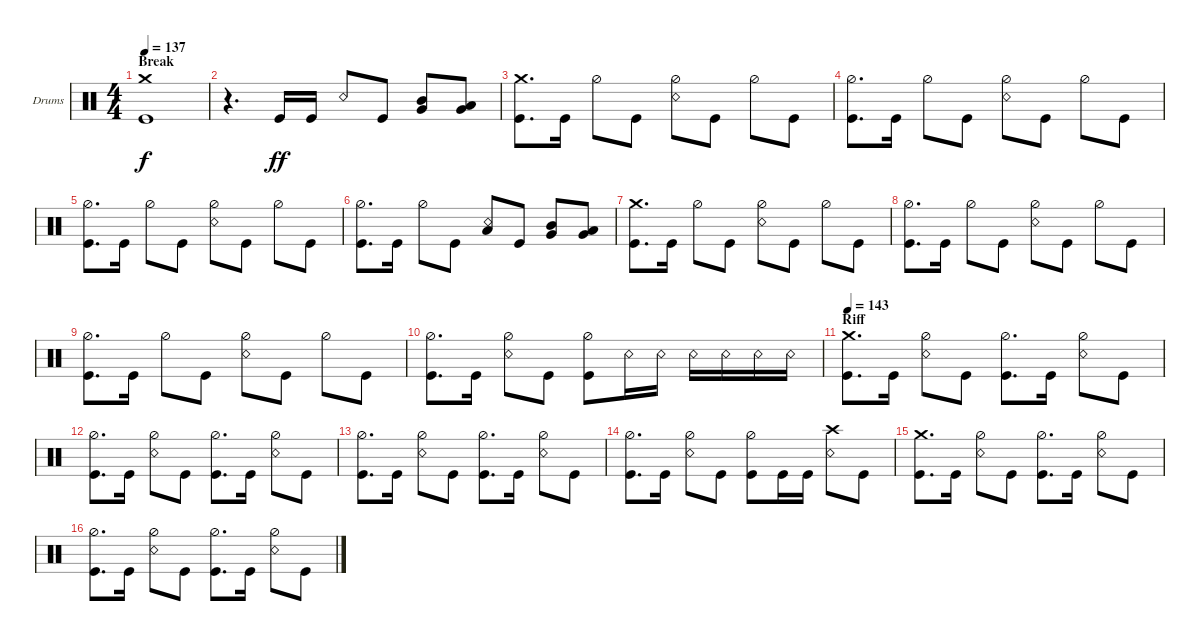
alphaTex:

\defaultSystemsLayout 4
\bracketExtendMode groupsimilarinstruments
\firstSystemTrackNameOrientation horizontal
\otherSystemsTrackNameOrientation horizontal
\track ("Nao - Drums" "Drums") {instrument percussion}
\staff {score}
\articulation defaults
\ts (4 4)
\section ("" "Break")
\tempo 137
\clef neutral
\ks c
("Crash medium (hit)" "Kick (hit)").1{dy f} |
r.4{d} "Kick (hit)".16{dy ff} "Kick (hit)".16 "Snare (rim shot)".8 "Kick (hit)".8 ("Mid Tom (hit)" "Very Low Tom (hit)").8 ("Low Tom (hit)" "Very Low Tom (hit)").8 |
("Crash medium (hit)" "Kick (hit)").8{d} "Kick (hit)".16 "Hi-Hat (half)".8 "Kick (hit)".8 ("Snare (rim shot)" "Hi-Hat (half)").8 "Kick (hit)".8 "Hi-Hat (half)".8 "Kick (hit)".8 |
("Kick (hit)" "Hi-Hat (half)").8{d} "Kick (hit)".16 "Hi-Hat (half)".8 "Kick (hit)".8 ("Snare (rim shot)" "Hi-Hat (half)").8 "Kick (hit)".8 "Hi-Hat (half)".8 "Kick (hit)".8 |
("Kick (hit)" "Hi-Hat (half)").8{d} "Kick (hit)".16 "Hi-Hat (half)".8 "Kick (hit)".8 ("Snare (rim shot)" "Hi-Hat (half)").8 "Kick (hit)".8 "Hi-Hat (half)".8 "Kick (hit)".8 |
("Kick (hit)" "Hi-Hat (half)").8{d} "Kick (hit)".16 "Hi-Hat (half)".8 "Kick (hit)".8 ("Snare (rim shot)" "Low Tom (hit)").8 "Kick (hit)".8 ("Very Low Tom (hit)" "Mid Tom (hit)").8 ("Very Low Tom (hit)" "Low Tom (hit)").8 |
("Crash medium (hit)" "Kick (hit)").8{d} "Kick (hit)".16 "Hi-Hat (half)".8 "Kick (hit)".8 ("Snare (rim shot)" "Hi-Hat (half)").8 "Kick (hit)".8 "Hi-Hat (half)".8 "Kick (hit)".8 |
("Kick (hit)" "Hi-Hat (half)").8{d} "Kick (hit)".16 "Hi-Hat (half)".8 "Kick (hit)".8 ("Snare (rim shot)" "Hi-Hat (half)").8 "Kick (hit)".8 "Hi-Hat (half)".8 "Kick (hit)".8 |
("Kick (hit)" "Hi-Hat (half)").8{d} "Kick (hit)".16 "Hi-Hat (half)".8 "Kick (hit)".8 ("Snare (rim shot)" "Hi-Hat (half)").8 "Kick (hit)".8 "Hi-Hat (half)".8 "Kick (hit)".8 |
("Kick (hit)" "Hi-Hat (half)").8{d} "Kick (hit)".16 ("Hi-Hat (half)" "Snare (rim shot)").8 "Kick (hit)".8 ("Hi-Hat (half)" "Kick (hit)").8 "Snare (rim shot)".16 "Snare (rim shot)".16 "Snare (rim shot)".16 "Snare (rim shot)".16 "Snare (rim shot)".16 "Snare (rim shot)".16 |
\section ("" "Riff")
\tempo 143
("Kick (hit)" "Crash medium (hit)").8{d} "Kick (hit)".16 ("Hi-Hat (half)" "Snare (rim shot)").8 "Kick (hit)".8 ("Kick (hit)" "Hi-Hat (half)").8{d} "Kick (hit)".16 ("Hi-Hat (half)" "Snare (rim shot)").8 "Kick (hit)".8 |
("Kick (hit)" "Hi-Hat (half)").8{d} "Kick (hit)".16 ("Hi-Hat (half)" "Snare (rim shot)").8 "Kick (hit)".8 ("Kick (hit)" "Hi-Hat (half)").8{d} "Kick (hit)".16 ("Hi-Hat (half)" "Snare (rim shot)").8 "Kick (hit)".8 |
("Kick (hit)" "Hi-Hat (half)").8{d} "Kick (hit)".16 ("Hi-Hat (half)" "Snare (rim shot)").8 "Kick (hit)".8 ("Kick (hit)" "Hi-Hat (half)").8{d} "Kick (hit)".16 ("Hi-Hat (half)" "Snare (rim shot)").8 "Kick (hit)".8 |
("Kick (hit)" "Hi-Hat (half)").8{d} "Kick (hit)".16 ("Hi-Hat (half)" "Snare (rim shot)").8 "Kick (hit)".8 ("Kick (hit)" "Hi-Hat (half)").8 "Kick (hit)".16 "Kick (hit)".16 ("Snare (rim shot)" "Crash high (hit)").8 "Kick (hit)".8 |
("Kick (hit)" "Crash medium (hit)").8{d} "Kick (hit)".16 ("Hi-Hat (half)" "Snare (rim shot)").8 "Kick (hit)".8 ("Kick (hit)" "Hi-Hat (half)").8{d} "Kick (hit)".16 ("Hi-Hat (half)" "Snare (rim shot)").8 "Kick (hit)".8 |
("Kick (hit)" "Hi-Hat (half)").8{d} "Kick (hit)".16 ("Hi-Hat (half)" "Snare (rim shot)").8 "Kick (hit)".8 ("Kick (hit)" "Hi-Hat (half)").8{d} "Kick (hit)".16 ("Hi-Hat (half)" "Snare (rim shot)").8 "Kick (hit)".8
